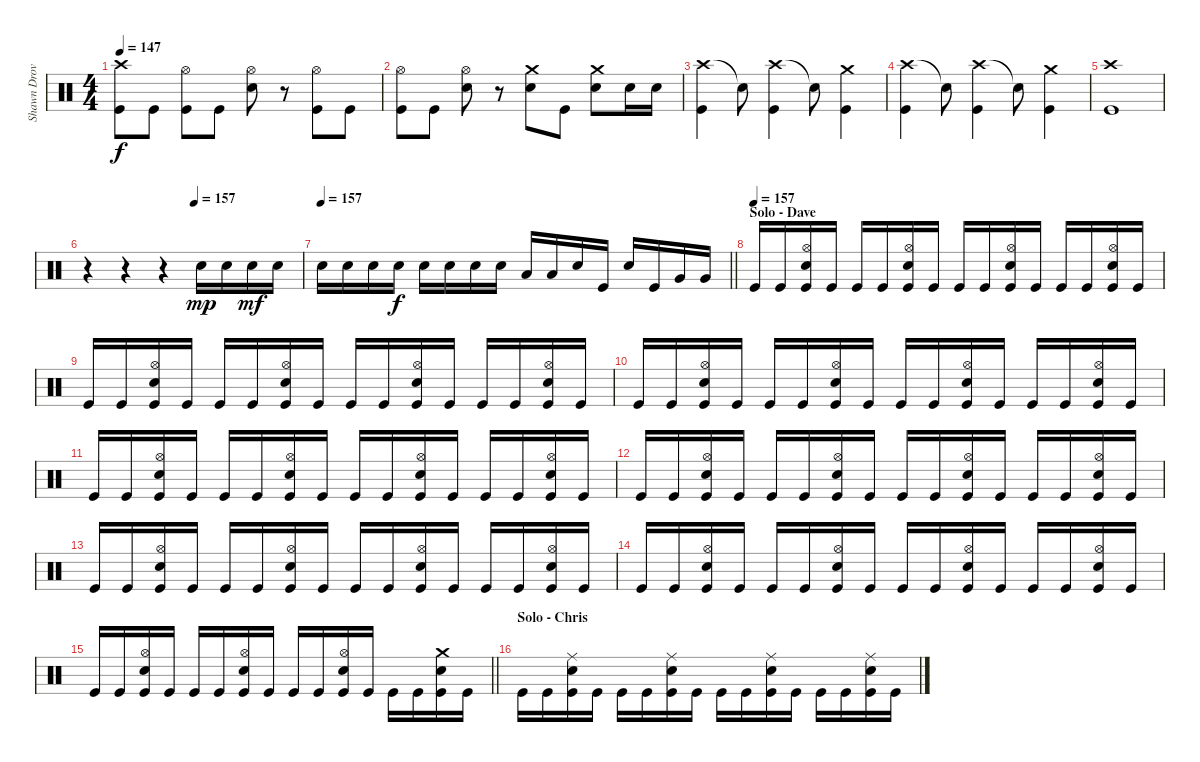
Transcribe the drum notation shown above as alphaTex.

\track ("Shawn Drover" "Shawn Drov") {instrument percussion}
\staff {score}
\articulation defaults
\ts (4 4)
\tempo 147
\clef neutral
\ks c
("Crash high (hit)" "Kick (hit)").8{dy f} "Kick (hit)".8 ("Hi-Hat (open)" "Kick (hit)").8 "Kick (hit)".8 ("Hi-Hat (open)" "Snare (hit) 2").8 r.8 ("Hi-Hat (open)" "Kick (hit)").8 "Kick (hit)".8 |
("Hi-Hat (open)" "Kick (hit)").8 "Kick (hit)".8 ("Hi-Hat (open)" "Snare (hit) 2").8 r.8 ("Crash medium (hit)" "Snare (hit) 2").8 "Kick (hit)".8 ("Crash medium (hit)" "Snare (hit) 2").8 "Snare (hit) 2".16 "Snare (hit) 2".16 |
("Crash high (hit)" "Kick (hit)").4 "Snare (hit)"{t}.8 ("Crash high (hit)" "Kick (hit)").4 "Snare (hit)"{t}.8 ("Crash medium (hit)" "Kick (hit)").4 |
("Crash high (hit)" "Kick (hit)").4 "Snare (hit)"{t}.8 ("Crash high (hit)" "Kick (hit)").4 "Snare (hit)"{t}.8 ("Crash medium (hit)" "Kick (hit)").4 |
("Crash high (hit)" "Kick (hit)").1 |
\tempo (157 0.5)
r.4 r.4 r.4 "Snare (hit) 2".16{dy mp} "Snare (hit) 2".16 "Snare (hit) 2".16{dy mf} "Snare (hit) 2".16 |
\tempo 157
\barLineRight lightlight "Snare (hit) 2".16 "Snare (hit) 2".16 "Snare (hit) 2".16 "Snare (hit) 2".16{dy f} "Snare (hit) 2".16 "Snare (hit) 2".16 "Snare (hit) 2".16 "Snare (hit) 2".16 "Low Tom (hit)".16 "Low Tom (hit)".16 "Snare (hit) 2".16 "Kick (hit)".16 "Snare (hit) 2".16 "Kick (hit)".16 "Very Low Tom (hit)".16 "Very Low Tom (hit)".16
|
\section ("" "Solo - Dave")
\tempo (157)
"Kick (hit)".16 "Kick (hit)".16 ("Hi-Hat (open)" "Snare (hit) 2" "Kick (hit)").16 "Kick (hit)".16 "Kick (hit)".16 "Kick (hit)".16 ("Hi-Hat (open)" "Snare (hit) 2" "Kick (hit)").16 "Kick (hit)".16 "Kick (hit)".16 "Kick (hit)".16 ("Hi-Hat (open)" "Snare (hit) 2" "Kick (hit)").16 "Kick (hit)".16 "Kick (hit)".16 "Kick (hit)".16 ("Hi-Hat (open)" "Snare (hit) 2" "Kick (hit)").16 "Kick (hit)".16 |
"Kick (hit)".16 "Kick (hit)".16 ("Hi-Hat (open)" "Snare (hit) 2" "Kick (hit)").16 "Kick (hit)".16 "Kick (hit)".16 "Kick (hit)".16 ("Hi-Hat (open)" "Snare (hit) 2" "Kick (hit)").16 "Kick (hit)".16 "Kick (hit)".16 "Kick (hit)".16 ("Hi-Hat (open)" "Snare (hit) 2" "Kick (hit)").16 "Kick (hit)".16 "Kick (hit)".16 "Kick (hit)".16 ("Hi-Hat (open)" "Snare (hit) 2" "Kick (hit)").16 "Kick (hit)".16 |
"Kick (hit)".16 "Kick (hit)".16 ("Hi-Hat (open)" "Snare (hit) 2" "Kick (hit)").16 "Kick (hit)".16 "Kick (hit)".16 "Kick (hit)".16 ("Hi-Hat (open)" "Snare (hit) 2" "Kick (hit)").16 "Kick (hit)".16 "Kick (hit)".16 "Kick (hit)".16 ("Hi-Hat (open)" "Snare (hit) 2" "Kick (hit)").16 "Kick (hit)".16 "Kick (hit)".16 "Kick (hit)".16 ("Hi-Hat (open)" "Snare (hit) 2" "Kick (hit)").16 "Kick (hit)".16 |
"Kick (hit)".16 "Kick (hit)".16 ("Hi-Hat (open)" "Snare (hit) 2" "Kick (hit)").16 "Kick (hit)".16 "Kick (hit)".16 "Kick (hit)".16 ("Hi-Hat (open)" "Snare (hit) 2" "Kick (hit)").16 "Kick (hit)".16 "Kick (hit)".16 "Kick (hit)".16 ("Hi-Hat (open)" "Snare (hit) 2" "Kick (hit)").16 "Kick (hit)".16 "Kick (hit)".16 "Kick (hit)".16 ("Hi-Hat (open)" "Snare (hit) 2" "Kick (hit)").16 "Kick (hit)".16 |
"Kick (hit)".16 "Kick (hit)".16 ("Hi-Hat (open)" "Snare (hit) 2" "Kick (hit)").16 "Kick (hit)".16 "Kick (hit)".16 "Kick (hit)".16 ("Hi-Hat (open)" "Snare (hit) 2" "Kick (hit)").16 "Kick (hit)".16 "Kick (hit)".16 "Kick (hit)".16 ("Hi-Hat (open)" "Snare (hit) 2" "Kick (hit)").16 "Kick (hit)".16 "Kick (hit)".16 "Kick (hit)".16 ("Hi-Hat (open)" "Snare (hit) 2" "Kick (hit)").16 "Kick (hit)".16 |
"Kick (hit)".16 "Kick (hit)".16 ("Hi-Hat (open)" "Snare (hit) 2" "Kick (hit)").16 "Kick (hit)".16 "Kick (hit)".16 "Kick (hit)".16 ("Hi-Hat (open)" "Snare (hit) 2" "Kick (hit)").16 "Kick (hit)".16 "Kick (hit)".16 "Kick (hit)".16 ("Hi-Hat (open)" "Snare (hit) 2" "Kick (hit)").16 "Kick (hit)".16 "Kick (hit)".16 "Kick (hit)".16 ("Hi-Hat (open)" "Snare (hit) 2" "Kick (hit)").16 "Kick (hit)".16 |
"Kick (hit)".16 "Kick (hit)".16 ("Hi-Hat (open)" "Snare (hit) 2" "Kick (hit)").16 "Kick (hit)".16 "Kick (hit)".16 "Kick (hit)".16 ("Hi-Hat (open)" "Snare (hit) 2" "Kick (hit)").16 "Kick (hit)".16 "Kick (hit)".16 "Kick (hit)".16 ("Hi-Hat (open)" "Snare (hit) 2" "Kick (hit)").16 "Kick (hit)".16 "Kick (hit)".16 "Kick (hit)".16 ("Hi-Hat (open)" "Snare (hit) 2" "Kick (hit)").16 "Kick (hit)".16 |
\barLineRight lightlight "Kick (hit)".16 "Kick (hit)".16
("Hi-Hat (open)" "Snare (hit) 2" "Kick (hit)").16 "Kick (hit)".16 "Kick (hit)".16 "Kick (hit)".16 ("Hi-Hat (open)" "Snare (hit) 2" "Kick (hit)").16 "Kick (hit)".16 "Kick (hit)".16 "Kick (hit)".16 ("Hi-Hat (open)" "Snare (hit) 2" "Kick (hit)").16 "Kick (hit)".16 "Kick (hit)".16 "Kick (hit)".16 ("Crash medium (hit)" "Snare (hit) 2" "Kick (hit)").16 "Kick (hit)".16 |
\section ("" "Solo - Chris")
"Kick (hit)".16 "Kick (hit)".16 ("Ride (middle)" "Snare (hit) 2" "Kick (hit)").16 "Kick (hit)".16 "Kick (hit)".16 "Kick (hit)".16 ("Ride (middle)" "Snare (hit) 2" "Kick (hit)").16 "Kick (hit)".16 "Kick (hit)".16 "Kick (hit)".16 ("Ride (middle)" "Snare (hit) 2" "Kick (hit)").16 "Kick (hit)".16 "Kick (hit)".16 "Kick (hit)".16 ("Ride (middle)" "Snare (hit) 2" "Kick (hit)").16 "Kick (hit)".16
